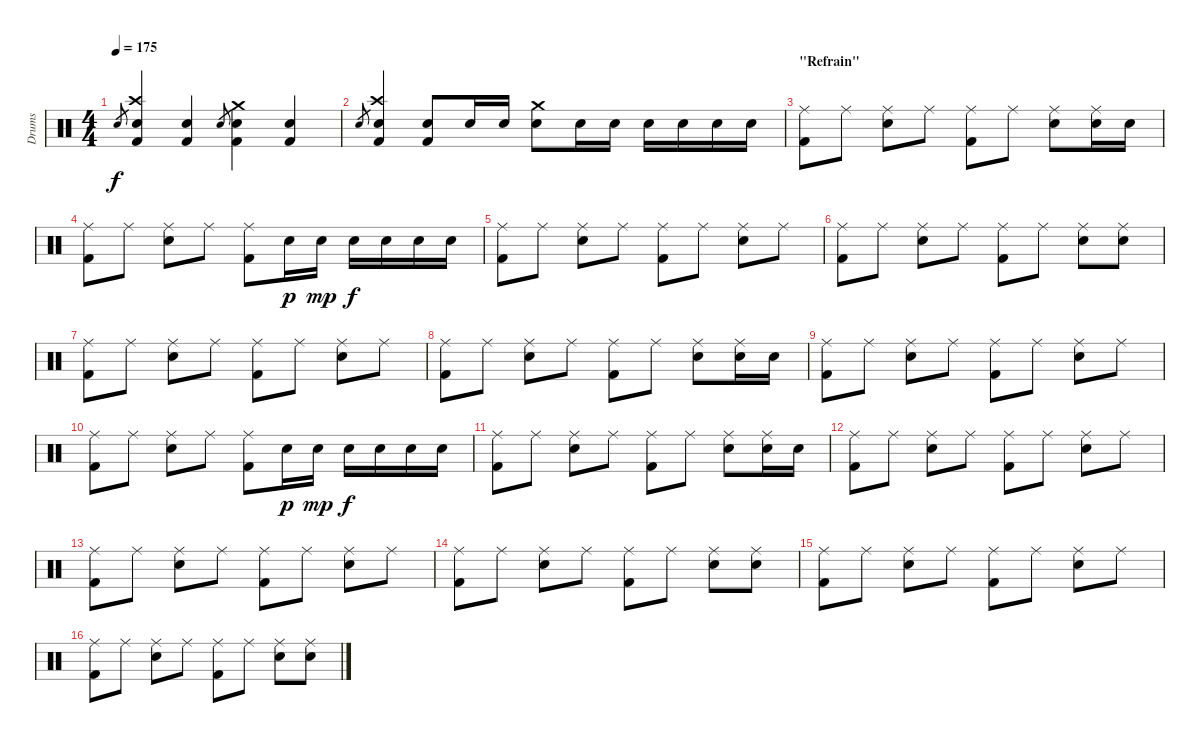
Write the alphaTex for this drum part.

\track ("Drums" "Drums") {instrument percussion}
\staff {score}
\articulation defaults
\ts (4 4)
\tempo 175
\clef neutral
\ks c "Snare (hit) 2".8{gr dy f}
("Crash high (hit)" "Snare (hit) 2" "Kick (hit) 2").4 ("Electric Snare (hit)" "Kick (hit) 2").4 "Snare (hit) 2".8{gr} ("Crash medium (hit)" "Snare (hit) 2" "Kick (hit) 2").4 ("Electric Snare (hit)" "Kick (hit) 2").4 |
"Snare (hit) 2".8{gr} ("Crash high (hit)" "Snare (hit) 2" "Kick (hit) 2").4 ("Electric Snare (hit)" "Kick (hit) 2").8 "Snare (hit) 2".16 "Snare (hit) 2".16 ("Crash medium (hit)" "Electric Snare (hit)").8 "Electric Snare (hit)".16 "Electric Snare (hit)".16 "Electric Snare (hit)".16 "Electric Snare (hit)".16 "Electric Snare (hit)".16 "Electric Snare (hit)".16 |
\section ("" "\"Refrain\"")
("Ride (middle)" "Kick (hit) 2").8 "Ride (middle)".8 ("Ride (middle)" "Electric Snare (hit)").8 "Ride (middle)".8 ("Ride (middle)" "Kick (hit) 2").8 "Ride (middle)".8 ("Ride (middle)" "Electric Snare (hit)").8 ("Ride (middle)" "Electric Snare (hit)").16 "Electric Snare (hit)".16 |
("Ride (middle)" "Kick (hit) 2").8 "Ride (middle)".8 ("Ride (middle)" "Electric Snare (hit)").8 "Ride (middle)".8 ("Ride (middle)" "Kick (hit) 2").8 "Electric Snare (hit)".16{dy p} "Electric Snare (hit)".16{dy mp} "Electric Snare (hit)".16{dy f} "Electric Snare (hit)".16 "Electric Snare (hit)".16 "Electric Snare (hit)".16 |
("Ride (middle)" "Kick (hit) 2").8 "Ride (middle)".8 ("Ride (middle)" "Electric Snare (hit)").8 "Ride (middle)".8 ("Ride (middle)" "Kick (hit) 2").8 "Ride (middle)".8 ("Ride (middle)" "Electric Snare (hit)").8 "Ride (middle)".8 |
("Ride (middle)" "Kick (hit) 2").8 "Ride (middle)".8 ("Ride (middle)" "Electric Snare (hit)").8 "Ride (middle)".8 ("Ride (middle)" "Kick (hit) 2").8 "Ride (middle)".8 ("Ride (middle)" "Electric Snare (hit)").8 ("Ride (middle)" "Electric Snare (hit)").8 |
("Ride (middle)" "Kick (hit) 2").8 "Ride (middle)".8 ("Ride (middle)" "Electric Snare (hit)").8 "Ride (middle)".8 ("Ride (middle)" "Kick (hit) 2").8 "Ride (middle)".8 ("Ride (middle)" "Electric Snare (hit)").8 "Ride (middle)".8 |
("Ride (middle)" "Kick (hit) 2").8 "Ride (middle)".8 ("Ride (middle)" "Electric Snare (hit)").8 "Ride (middle)".8 ("Ride (middle)" "Kick (hit) 2").8 "Ride (middle)".8 ("Ride (middle)" "Electric Snare (hit)").8 ("Ride (middle)" "Electric Snare (hit)").16 "Electric Snare (hit)".16 |
("Ride (middle)" "Kick (hit) 2").8 "Ride (middle)".8 ("Ride (middle)" "Electric Snare (hit)").8 "Ride (middle)".8 ("Ride (middle)" "Kick (hit) 2").8 "Ride (middle)".8 ("Ride (middle)" "Electric Snare (hit)").8 "Ride (middle)".8 |
("Ride (middle)" "Kick (hit) 2").8 "Ride (middle)".8 ("Ride (middle)" "Electric Snare (hit)").8 "Ride (middle)".8 ("Ride (middle)" "Kick (hit) 2").8 "Electric Snare (hit)".16{dy p} "Electric Snare (hit)".16{dy mp} "Electric Snare (hit)".16{dy f} "Electric Snare (hit)".16 "Electric Snare (hit)".16 "Electric Snare (hit)".16 |
("Ride (middle)" "Kick (hit) 2").8 "Ride (middle)".8 ("Ride (middle)" "Electric Snare (hit)").8 "Ride (middle)".8 ("Ride (middle)" "Kick (hit) 2").8 "Ride (middle)".8 ("Ride (middle)" "Electric Snare (hit)").8 ("Ride (middle)" "Electric Snare (hit)").16 "Electric Snare (hit)".16 |
("Ride (middle)" "Kick (hit) 2").8 "Ride (middle)".8 ("Ride (middle)" "Electric Snare (hit)").8 "Ride (middle)".8 ("Ride (middle)" "Kick (hit) 2").8 "Ride (middle)".8 ("Ride (middle)" "Electric Snare (hit)").8 "Ride (middle)".8 |
("Ride (middle)" "Kick (hit) 2").8 "Ride (middle)".8 ("Ride (middle)" "Electric Snare (hit)").8 "Ride (middle)".8 ("Ride (middle)" "Kick (hit) 2").8 "Ride (middle)".8 ("Ride (middle)" "Electric Snare (hit)").8 "Ride (middle)".8 |
("Ride (middle)" "Kick (hit) 2").8 "Ride (middle)".8 ("Ride (middle)" "Electric Snare (hit)").8 "Ride (middle)".8 ("Ride (middle)" "Kick (hit) 2").8 "Ride (middle)".8 ("Ride (middle)" "Electric Snare (hit)").8 ("Ride (middle)" "Electric Snare (hit)").8 |
("Ride (middle)" "Kick (hit) 2").8 "Ride (middle)".8 ("Ride (middle)" "Electric Snare (hit)").8 "Ride (middle)".8 ("Ride (middle)" "Kick (hit) 2").8 "Ride (middle)".8 ("Ride (middle)" "Electric Snare (hit)").8 "Ride (middle)".8 |
("Ride (middle)" "Kick (hit) 2").8 "Ride (middle)".8 ("Ride (middle)" "Electric Snare (hit)").8 "Ride (middle)".8 ("Ride (middle)" "Kick (hit) 2").8 "Ride (middle)".8 ("Ride (middle)" "Electric Snare (hit)").8 ("Ride (middle)" "Electric Snare (hit)").8
